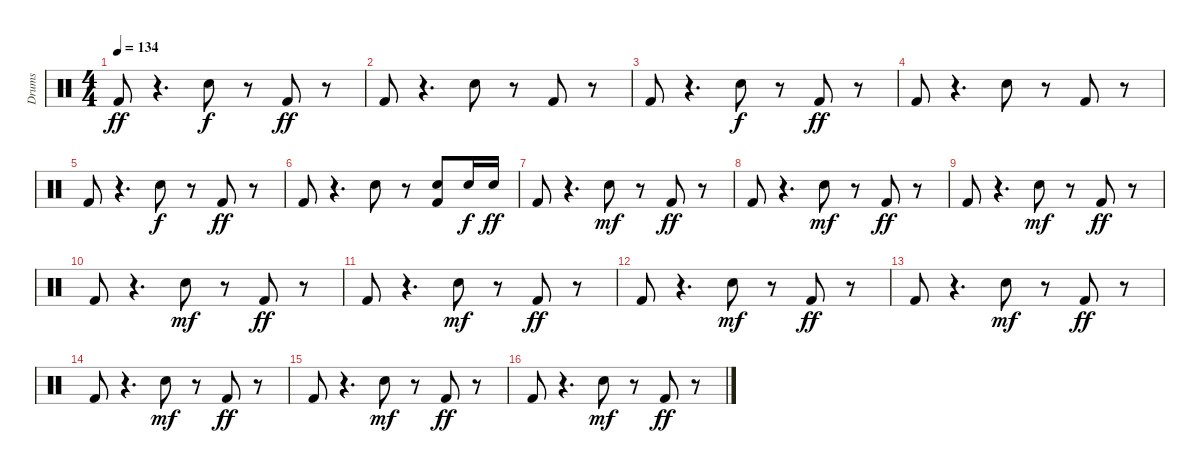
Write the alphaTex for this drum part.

\track ("Drums" "Drums") {instrument percussion}
\staff {score}
\articulation defaults
\ts (4 4)
\tempo 134
\clef neutral
\ks c "Kick (hit) 2".8{dy ff}
r.4{d} "Electric Snare (hit)".8{dy f} r.8 "Kick (hit) 2".8{dy ff} r.8 |
"Kick (hit) 2".8 r.4{d} "Electric Snare (hit)".8 r.8 "Kick (hit) 2".8 r.8 |
"Kick (hit) 2".8 r.4{d} "Electric Snare (hit)".8{dy f} r.8 "Kick (hit) 2".8{dy ff} r.8 |
"Kick (hit) 2".8 r.4{d} "Electric Snare (hit)".8 r.8 "Kick (hit) 2".8 r.8 |
"Kick (hit) 2".8 r.4{d} "Electric Snare (hit)".8{dy f} r.8 "Kick (hit) 2".8{dy ff} r.8 |
"Kick (hit) 2".8 r.4{d} "Electric Snare (hit)".8 r.8 ("Kick (hit) 2" "Electric Snare (hit)").8 "Electric Snare (hit)".16{dy f} "Electric Snare (hit)".16{dy ff} |
"Kick (hit) 2".8 r.4{d} "Electric Snare (hit)".8{dy mf} r.8 "Kick (hit) 2".8{dy ff} r.8 |
"Kick (hit) 2".8 r.4{d} "Electric Snare (hit)".8{dy mf} r.8 "Kick (hit) 2".8{dy ff} r.8 |
"Kick (hit) 2".8 r.4{d} "Electric Snare (hit)".8{dy mf} r.8 "Kick (hit) 2".8{dy ff} r.8 |
"Kick (hit) 2".8 r.4{d} "Electric Snare (hit)".8{dy mf} r.8 "Kick (hit) 2".8{dy ff} r.8 |
"Kick (hit) 2".8 r.4{d} "Electric Snare (hit)".8{dy mf} r.8 "Kick (hit) 2".8{dy ff} r.8 |
"Kick (hit) 2".8 r.4{d} "Electric Snare (hit)".8{dy mf} r.8 "Kick (hit) 2".8{dy ff} r.8 |
"Kick (hit) 2".8 r.4{d} "Electric Snare (hit)".8{dy mf} r.8 "Kick (hit) 2".8{dy ff} r.8 |
"Kick (hit) 2".8 r.4{d} "Electric Snare (hit)".8{dy mf} r.8 "Kick (hit) 2".8{dy ff} r.8 |
"Kick (hit) 2".8 r.4{d} "Electric Snare (hit)".8{dy mf} r.8 "Kick (hit) 2".8{dy ff} r.8 |
"Kick (hit) 2".8 r.4{d} "Electric Snare (hit)".8{dy mf} r.8 "Kick (hit) 2".8{dy ff} r.8
